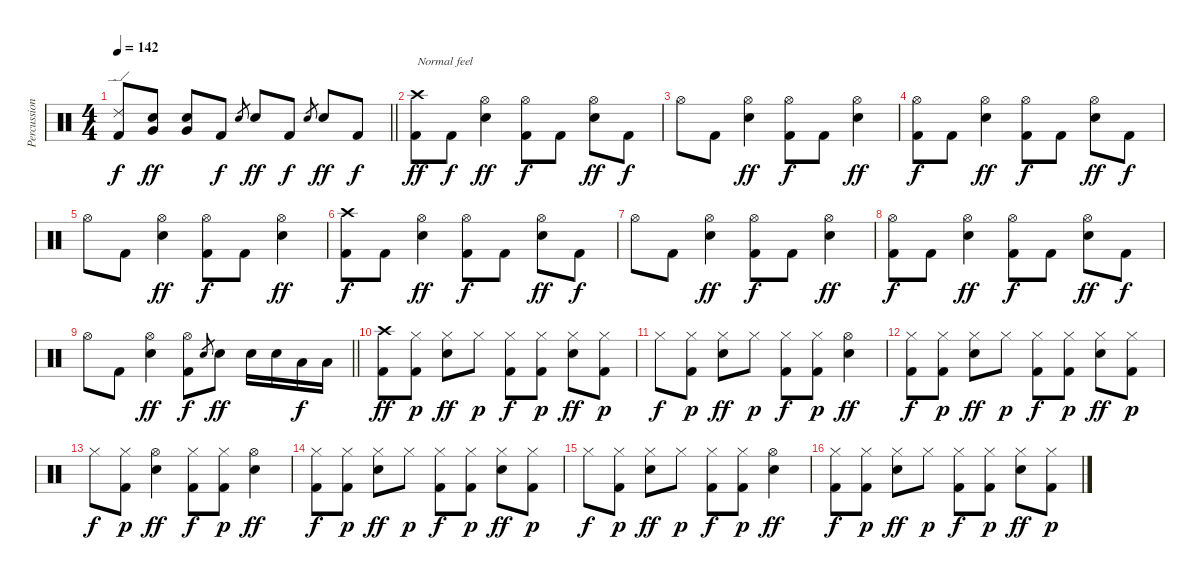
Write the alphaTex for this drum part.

\track ("Percussion" "Percussion") {instrument percussion}
\staff {score}
\articulation defaults
\ts (4 4)
\tempo 142
\clef neutral
\barLineRight lightlight
\ks c
("Ride (edge) 2" "Kick (hit) 2").8{dy f} ("Very Low Tom (hit)" "Snare (hit) 2").8{dy ff} ("Very Low Tom (hit)" "Snare (hit) 2").8 "Kick (hit) 2".8{dy f} "Snare (hit) 2".8{gr} "Snare (hit) 2".8{dy ff} "Kick (hit) 2".8{dy f} "Snare (hit) 2".8{gr} "Snare (hit) 2".8{dy ff} "Kick (hit) 2".8{dy f} |
("Crash high (hit)" "Kick (hit) 2").8{txt "Normal feel" dy ff} "Kick (hit) 2".8{dy f} ("Hi-Hat (open)" "Snare (hit) 2").4{dy ff} ("Hi-Hat (open)" "Kick (hit) 2").8{dy f} "Kick (hit) 2".8 ("Hi-Hat (open)" "Snare (hit) 2").8{dy ff} "Kick (hit) 2".8{dy f} |
"Hi-Hat (open)".8 "Kick (hit) 2".8 ("Hi-Hat (open)" "Snare (hit) 2").4{dy ff} ("Hi-Hat (open)" "Kick (hit) 2").8{dy f} "Kick (hit) 2".8 ("Hi-Hat (open)" "Snare (hit) 2").4{dy ff} |
("Hi-Hat (open)" "Kick (hit) 2").8{dy f} "Kick (hit) 2".8 ("Hi-Hat (open)" "Snare (hit) 2").4{dy ff} ("Hi-Hat (open)" "Kick (hit) 2").8{dy f} "Kick (hit) 2".8 ("Hi-Hat (open)" "Snare (hit) 2").8{dy ff} "Kick (hit) 2".8{dy f} |
"Hi-Hat (open)".8 "Kick (hit) 2".8 ("Hi-Hat (open)" "Snare (hit) 2").4{dy ff} ("Hi-Hat (open)" "Kick (hit) 2").8{dy f} "Kick (hit) 2".8 ("Hi-Hat (open)" "Snare (hit) 2").4{dy ff} |
("Crash high (hit)" "Kick (hit) 2").8{dy f} "Kick (hit) 2".8 ("Hi-Hat (open)" "Snare (hit) 2").4{dy ff} ("Hi-Hat (open)" "Kick (hit) 2").8{dy f} "Kick (hit) 2".8 ("Hi-Hat (open)" "Snare (hit) 2").8{dy ff} "Kick (hit) 2".8{dy f} |
"Hi-Hat (open)".8 "Kick (hit) 2".8 ("Hi-Hat (open)" "Snare (hit) 2").4{dy ff} ("Hi-Hat (open)" "Kick (hit) 2").8{dy f} "Kick (hit) 2".8 ("Hi-Hat (open)" "Snare (hit) 2").4{dy ff} |
("Hi-Hat (open)" "Kick (hit) 2").8{dy f} "Kick (hit) 2".8 ("Hi-Hat (open)" "Snare (hit) 2").4{dy ff} ("Hi-Hat (open)" "Kick (hit) 2").8{dy f} "Kick (hit) 2".8 ("Hi-Hat (open)" "Snare (hit) 2").8{dy ff} "Kick (hit) 2".8{dy f} |
\barLineRight lightlight "Hi-Hat (open)".8 "Kick (hit) 2".8
("Hi-Hat (open)" "Snare (hit) 2").4{dy ff} ("Hi-Hat (open)" "Kick (hit) 2").8{dy f} "Snare (hit) 2".8{gr} "Snare (hit) 2".8{dy ff} "Snare (hit) 2".16 "Snare (hit) 2".16 "Low Tom (hit)".16{dy f} "Low Tom (hit)".16 |
("Crash high (hit)" "Kick (hit) 2").8{dy ff} ("Hi-Hat (closed)" "Kick (hit) 2").8{dy p} ("Hi-Hat (closed)" "Snare (hit) 2").8{dy ff} "Hi-Hat (closed)".8{dy p} ("Hi-Hat (closed)" "Kick (hit) 2").8{dy f} ("Hi-Hat (closed)" "Kick (hit) 2").8{dy p} ("Hi-Hat (closed)" "Snare (hit) 2").8{dy ff} ("Hi-Hat (closed)" "Kick (hit) 2").8{dy p} |
"Hi-Hat (closed)".8{dy f} ("Hi-Hat (closed)" "Kick (hit) 2").8{dy p} ("Hi-Hat (closed)" "Snare (hit) 2").8{dy ff} "Hi-Hat (closed)".8{dy p} ("Hi-Hat (closed)" "Kick (hit) 2").8{dy f} ("Hi-Hat (closed)" "Kick (hit) 2").8{dy p} ("Hi-Hat (open)" "Snare (hit) 2").4{dy ff} |
("Hi-Hat (closed)" "Kick (hit) 2").8{dy f} ("Hi-Hat (closed)" "Kick (hit) 2").8{dy p} ("Hi-Hat (closed)" "Snare (hit) 2").8{dy ff} "Hi-Hat (closed)".8{dy p} ("Hi-Hat (closed)" "Kick (hit) 2").8{dy f} ("Hi-Hat (closed)" "Kick (hit) 2").8{dy p} ("Hi-Hat (closed)" "Snare (hit) 2").8{dy ff} ("Hi-Hat (closed)" "Kick (hit) 2").8{dy p} |
"Hi-Hat (closed)".8{dy f} ("Hi-Hat (closed)" "Kick (hit) 2").8{dy p} ("Hi-Hat (open)" "Snare (hit) 2").4{dy ff} ("Hi-Hat (closed)" "Kick (hit) 2").8{dy f} ("Hi-Hat (closed)" "Kick (hit) 2").8{dy p} ("Hi-Hat (open)" "Snare (hit) 2").4{dy ff} |
("Hi-Hat (closed)" "Kick (hit) 2").8{dy f} ("Hi-Hat (closed)" "Kick (hit) 2").8{dy p} ("Hi-Hat (closed)" "Snare (hit) 2").8{dy ff} "Hi-Hat (closed)".8{dy p} ("Hi-Hat (closed)" "Kick (hit) 2").8{dy f} ("Hi-Hat (closed)" "Kick (hit) 2").8{dy p} ("Hi-Hat (closed)" "Snare (hit) 2").8{dy ff} ("Hi-Hat (closed)" "Kick (hit) 2").8{dy p} |
"Hi-Hat (closed)".8{dy f} ("Hi-Hat (closed)" "Kick (hit) 2").8{dy p} ("Hi-Hat (closed)" "Snare (hit) 2").8{dy ff} "Hi-Hat (closed)".8{dy p} ("Hi-Hat (closed)" "Kick (hit) 2").8{dy f} ("Hi-Hat (closed)" "Kick (hit) 2").8{dy p} ("Hi-Hat (open)" "Snare (hit) 2").4{dy ff} |
("Hi-Hat (closed)" "Kick (hit) 2").8{dy f} ("Hi-Hat (closed)" "Kick (hit) 2").8{dy p} ("Hi-Hat (closed)" "Snare (hit) 2").8{dy ff} "Hi-Hat (closed)".8{dy p} ("Hi-Hat (closed)" "Kick (hit) 2").8{dy f} ("Hi-Hat (closed)" "Kick (hit) 2").8{dy p} ("Hi-Hat (closed)" "Snare (hit) 2").8{dy ff} ("Hi-Hat (closed)" "Kick (hit) 2").8{dy p}
